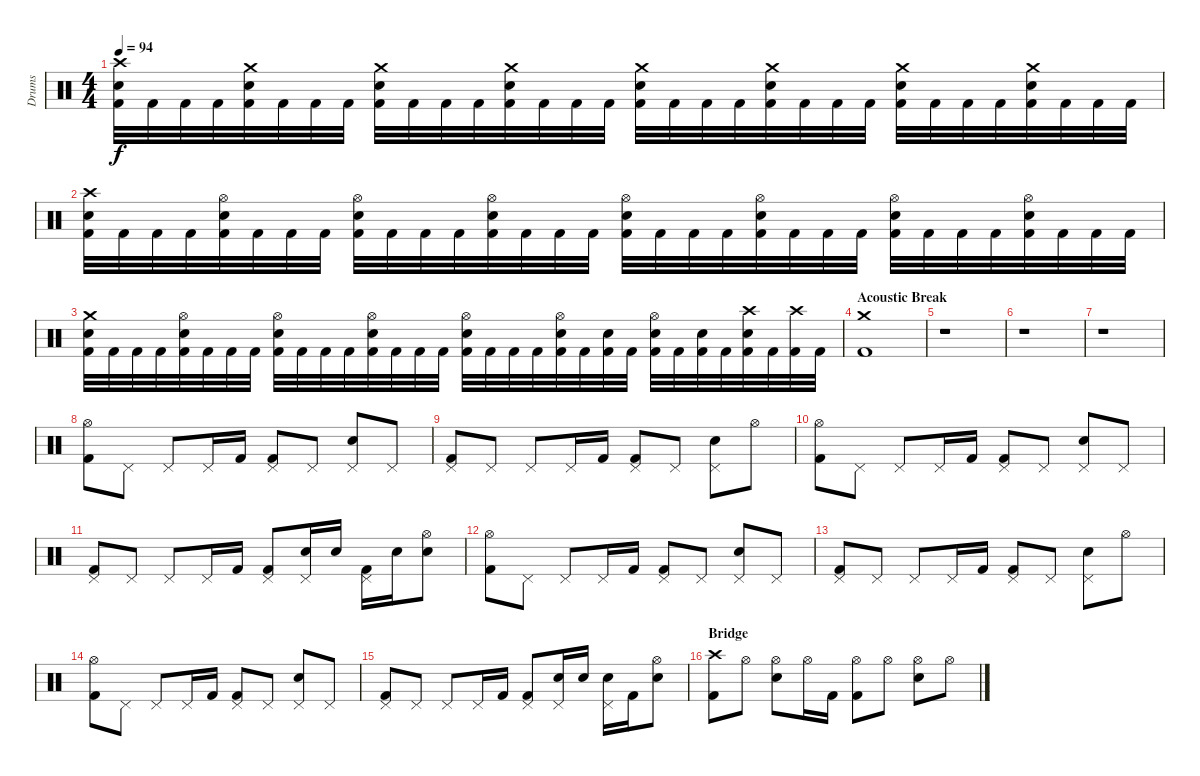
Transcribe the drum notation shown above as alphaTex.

\track ("Drums" "Drums") {instrument percussion}
\staff {score}
\articulation defaults
\ts (4 4)
\tempo 94
\clef neutral
\ks c
("Crash high (hit)" "Electric Snare (hit)" "Kick (hit) 2").32{dy f} "Kick (hit) 2".32 "Kick (hit) 2".32 "Kick (hit) 2".32 ("Crash medium (hit)" "Electric Snare (hit)" "Kick (hit) 2").32 "Kick (hit) 2".32 "Kick (hit) 2".32 "Kick (hit) 2".32 ("Crash medium (hit)" "Electric Snare (hit)" "Kick (hit) 2").32 "Kick (hit) 2".32 "Kick (hit) 2".32 "Kick (hit) 2".32 ("Crash medium (hit)" "Electric Snare (hit)" "Kick (hit) 2").32 "Kick (hit) 2".32 "Kick (hit) 2".32 "Kick (hit) 2".32 ("Crash medium (hit)" "Electric Snare (hit)" "Kick (hit) 2").32 "Kick (hit) 2".32 "Kick (hit) 2".32 "Kick (hit) 2".32 ("Crash medium (hit)" "Electric Snare (hit)" "Kick (hit) 2").32 "Kick (hit) 2".32 "Kick (hit) 2".32 "Kick (hit) 2".32 ("Crash medium (hit)" "Electric Snare (hit)" "Kick (hit) 2").32 "Kick (hit) 2".32 "Kick (hit) 2".32 "Kick (hit) 2".32 ("Crash medium (hit)" "Electric Snare (hit)" "Kick (hit) 2").32 "Kick (hit) 2".32 "Kick (hit) 2".32 "Kick (hit) 2".32 |
("Crash high (hit)" "Electric Snare (hit)" "Kick (hit) 2").32 "Kick (hit) 2".32 "Kick (hit) 2".32 "Kick (hit) 2".32 ("Hi-Hat (open)" "Electric Snare (hit)" "Kick (hit) 2").32 "Kick (hit) 2".32 "Kick (hit) 2".32 "Kick (hit) 2".32 ("Hi-Hat (open)" "Electric Snare (hit)" "Kick (hit) 2").32 "Kick (hit) 2".32 "Kick (hit) 2".32 "Kick (hit) 2".32 ("Hi-Hat (open)" "Electric Snare (hit)" "Kick (hit) 2").32 "Kick (hit) 2".32 "Kick (hit) 2".32 "Kick (hit) 2".32 ("Hi-Hat (open)" "Electric Snare (hit)" "Kick (hit) 2").32 "Kick (hit) 2".32 "Kick (hit) 2".32 "Kick (hit) 2".32 ("Hi-Hat (open)" "Electric Snare (hit)" "Kick (hit) 2").32 "Kick (hit) 2".32 "Kick (hit) 2".32 "Kick (hit) 2".32 ("Hi-Hat (open)" "Electric Snare (hit)" "Kick (hit) 2").32 "Kick (hit) 2".32 "Kick (hit) 2".32 "Kick (hit) 2".32 ("Hi-Hat (open)" "Electric Snare (hit)" "Kick (hit) 2").32 "Kick (hit) 2".32 "Kick (hit) 2".32 "Kick (hit) 2".32 |
("Crash medium (hit)" "Electric Snare (hit)" "Kick (hit) 2").32 "Kick (hit) 2".32 "Kick (hit) 2".32 "Kick (hit) 2".32 ("Hi-Hat (open)" "Electric Snare (hit)" "Kick (hit) 2").32 "Kick (hit) 2".32 "Kick (hit) 2".32 "Kick (hit) 2".32 ("Hi-Hat (open)" "Electric Snare (hit)" "Kick (hit) 2").32 "Kick (hit) 2".32 "Kick (hit) 2".32 "Kick (hit) 2".32 ("Hi-Hat (open)" "Electric Snare (hit)" "Kick (hit) 2").32 "Kick (hit) 2".32 "Kick (hit) 2".32 "Kick (hit) 2".32 ("Hi-Hat (open)" "Electric Snare (hit)" "Kick (hit) 2").32 "Kick (hit) 2".32 "Kick (hit) 2".32 "Kick (hit) 2".32 ("Hi-Hat (open)" "Electric Snare (hit)" "Kick (hit) 2").32 "Kick (hit) 2".32 ("Electric Snare (hit)" "Kick (hit) 2").32 "Kick (hit) 2".32 ("Hi-Hat (open)" "Electric Snare (hit)" "Kick (hit) 2").32 "Kick (hit) 2".32 ("Electric Snare (hit)" "Kick (hit) 2").32 "Kick (hit) 2".32 ("Crash high (hit)" "Electric Snare (hit)" "Kick (hit) 2").32 "Kick (hit) 2".32 ("Crash high (hit)" "Kick (hit) 2").32 "Kick (hit) 2".32 |
\section ("" "Acoustic Break")
("Crash medium (hit)" "Kick (hit) 2").1 |
r.1 |
r.1 |
r.1 |
("Hi-Hat (open)" "Kick (hit) 2").8 "Pedal Hi-Hat (hit)".8 "Pedal Hi-Hat (hit)".8 "Pedal Hi-Hat (hit)".16 "Kick (hit) 2".16 ("Pedal Hi-Hat (hit)" "Kick (hit) 2").8 "Pedal Hi-Hat (hit)".8 ("Pedal Hi-Hat (hit)" "Electric Snare (hit)").8 "Pedal Hi-Hat (hit)".8 |
("Pedal Hi-Hat (hit)" "Kick (hit) 2").8 "Pedal Hi-Hat (hit)".8 "Pedal Hi-Hat (hit)".8 "Pedal Hi-Hat (hit)".16 "Kick (hit) 2".16 ("Pedal Hi-Hat (hit)" "Kick (hit) 2").8 "Pedal Hi-Hat (hit)".8 ("Pedal Hi-Hat (hit)" "Electric Snare (hit)").8 "Hi-Hat (open)".8 |
("Hi-Hat (open)" "Kick (hit) 2").8 "Pedal Hi-Hat (hit)".8 "Pedal Hi-Hat (hit)".8 "Pedal Hi-Hat (hit)".16 "Kick (hit) 2".16 ("Pedal Hi-Hat (hit)" "Kick (hit) 2").8 "Pedal Hi-Hat (hit)".8 ("Pedal Hi-Hat (hit)" "Electric Snare (hit)").8 "Pedal Hi-Hat (hit)".8 |
("Pedal Hi-Hat (hit)" "Kick (hit) 2").8 "Pedal Hi-Hat (hit)".8 "Pedal Hi-Hat (hit)".8 "Pedal Hi-Hat (hit)".16 "Kick (hit) 2".16 ("Pedal Hi-Hat (hit)" "Kick (hit) 2").8 ("Pedal Hi-Hat (hit)" "Electric Snare (hit)").16 "Electric Snare (hit)".16 ("Pedal Hi-Hat (hit)" "Kick (hit) 2").16 "Electric Snare (hit)".16 ("Hi-Hat (open)" "Electric Snare (hit)").8 |
("Hi-Hat (open)" "Kick (hit) 2").8 "Pedal Hi-Hat (hit)".8 "Pedal Hi-Hat (hit)".8 "Pedal Hi-Hat (hit)".16 "Kick (hit) 2".16 ("Pedal Hi-Hat (hit)" "Kick (hit) 2").8 "Pedal Hi-Hat (hit)".8 ("Pedal Hi-Hat (hit)" "Electric Snare (hit)").8 "Pedal Hi-Hat (hit)".8 |
("Pedal Hi-Hat (hit)" "Kick (hit) 2").8 "Pedal Hi-Hat (hit)".8 "Pedal Hi-Hat (hit)".8 "Pedal Hi-Hat (hit)".16 "Kick (hit) 2".16 ("Pedal Hi-Hat (hit)" "Kick (hit) 2").8 "Pedal Hi-Hat (hit)".8 ("Pedal Hi-Hat (hit)" "Electric Snare (hit)").8 "Hi-Hat (open)".8 |
("Hi-Hat (open)" "Kick (hit) 2").8 "Pedal Hi-Hat (hit)".8 "Pedal Hi-Hat (hit)".8 "Pedal Hi-Hat (hit)".16 "Kick (hit) 2".16 ("Pedal Hi-Hat (hit)" "Kick (hit) 2").8 "Pedal Hi-Hat (hit)".8 ("Pedal Hi-Hat (hit)" "Electric Snare (hit)").8 "Pedal Hi-Hat (hit)".8 |
("Pedal Hi-Hat (hit)" "Kick (hit) 2").8 "Pedal Hi-Hat (hit)".8 "Pedal Hi-Hat (hit)".8 "Pedal Hi-Hat (hit)".16 "Kick (hit) 2".16 ("Pedal Hi-Hat (hit)" "Kick (hit) 2").8 ("Pedal Hi-Hat (hit)" "Electric Snare (hit)").16 "Electric Snare (hit)".16 ("Pedal Hi-Hat (hit)" "Electric Snare (hit)").16 "Kick (hit) 2".16 ("Hi-Hat (open)" "Electric Snare (hit)").8 |
\section ("" "Bridge")
("Crash high (hit)" "Kick (hit) 2").8 "Hi-Hat (open)".8 ("Hi-Hat (open)" "Electric Snare (hit)").8 "Hi-Hat (open)".16 "Kick (hit) 2".16 ("Hi-Hat (open)" "Kick (hit) 2").8 "Hi-Hat (open)".8 ("Hi-Hat (open)" "Electric Snare (hit)").8 "Hi-Hat (open)".8
